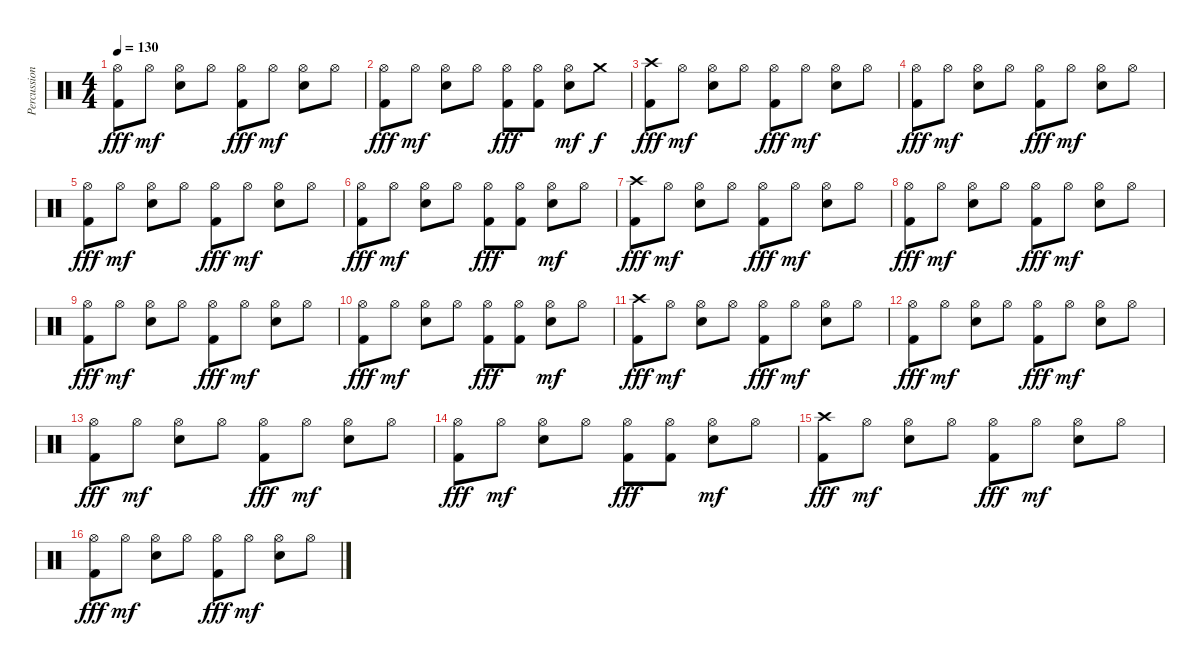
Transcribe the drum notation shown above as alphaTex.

\track ("Percussion" "Percussion") {instrument percussion}
\staff {score}
\articulation defaults
\ts (4 4)
\tempo 130
\clef neutral
\ks c
("Hi-Hat (open)" "Kick (hit) 2").8{dy fff} "Hi-Hat (open)".8{dy mf} ("Hi-Hat (open)" "Electric Snare (hit)").8 "Hi-Hat (open)".8 ("Hi-Hat (open)" "Kick (hit) 2").8{dy fff} "Hi-Hat (open)".8{dy mf} ("Hi-Hat (open)" "Electric Snare (hit)").8 "Hi-Hat (open)".8 |
("Hi-Hat (open)" "Kick (hit) 2").8{dy fff} "Hi-Hat (open)".8{dy mf} ("Hi-Hat (open)" "Electric Snare (hit)").8 "Hi-Hat (open)".8 ("Hi-Hat (open)" "Kick (hit) 2").8{dy fff} ("Hi-Hat (open)" "Kick (hit) 2").8 ("Hi-Hat (open)" "Electric Snare (hit)").8{dy mf} "Crash medium (hit)".8{dy f} |
("Crash high (hit)" "Kick (hit) 2").8{dy fff} "Hi-Hat (open)".8{dy mf} ("Hi-Hat (open)" "Electric Snare (hit)").8 "Hi-Hat (open)".8 ("Hi-Hat (open)" "Kick (hit) 2").8{dy fff} "Hi-Hat (open)".8{dy mf} ("Hi-Hat (open)" "Electric Snare (hit)").8 "Hi-Hat (open)".8 |
("Hi-Hat (open)" "Kick (hit) 2").8{dy fff} "Hi-Hat (open)".8{dy mf} ("Hi-Hat (open)" "Electric Snare (hit)").8 "Hi-Hat (open)".8 ("Hi-Hat (open)" "Kick (hit) 2").8{dy fff} "Hi-Hat (open)".8{dy mf} ("Hi-Hat (open)" "Electric Snare (hit)").8 "Hi-Hat (open)".8 |
("Hi-Hat (open)" "Kick (hit) 2").8{dy fff} "Hi-Hat (open)".8{dy mf} ("Hi-Hat (open)" "Electric Snare (hit)").8 "Hi-Hat (open)".8 ("Hi-Hat (open)" "Kick (hit) 2").8{dy fff} "Hi-Hat (open)".8{dy mf} ("Hi-Hat (open)" "Electric Snare (hit)").8 "Hi-Hat (open)".8 |
("Hi-Hat (open)" "Kick (hit) 2").8{dy fff} "Hi-Hat (open)".8{dy mf} ("Hi-Hat (open)" "Electric Snare (hit)").8 "Hi-Hat (open)".8 ("Hi-Hat (open)" "Kick (hit) 2").8{dy fff} ("Hi-Hat (open)" "Kick (hit) 2").8 ("Hi-Hat (open)" "Electric Snare (hit)").8{dy mf} "Hi-Hat (open)".8 |
("Crash high (hit)" "Kick (hit) 2").8{dy fff} "Hi-Hat (open)".8{dy mf} ("Hi-Hat (open)" "Electric Snare (hit)").8 "Hi-Hat (open)".8 ("Hi-Hat (open)" "Kick (hit) 2").8{dy fff} "Hi-Hat (open)".8{dy mf} ("Hi-Hat (open)" "Electric Snare (hit)").8 "Hi-Hat (open)".8 |
("Hi-Hat (open)" "Kick (hit) 2").8{dy fff} "Hi-Hat (open)".8{dy mf} ("Hi-Hat (open)" "Electric Snare (hit)").8 "Hi-Hat (open)".8 ("Hi-Hat (open)" "Kick (hit) 2").8{dy fff} "Hi-Hat (open)".8{dy mf} ("Hi-Hat (open)" "Electric Snare (hit)").8 "Hi-Hat (open)".8 |
("Hi-Hat (open)" "Kick (hit) 2").8{dy fff} "Hi-Hat (open)".8{dy mf} ("Hi-Hat (open)" "Electric Snare (hit)").8 "Hi-Hat (open)".8 ("Hi-Hat (open)" "Kick (hit) 2").8{dy fff} "Hi-Hat (open)".8{dy mf} ("Hi-Hat (open)" "Electric Snare (hit)").8 "Hi-Hat (open)".8 |
("Hi-Hat (open)" "Kick (hit) 2").8{dy fff} "Hi-Hat (open)".8{dy mf} ("Hi-Hat (open)" "Electric Snare (hit)").8 "Hi-Hat (open)".8 ("Hi-Hat (open)" "Kick (hit) 2").8{dy fff} ("Hi-Hat (open)" "Kick (hit) 2").8 ("Hi-Hat (open)" "Electric Snare (hit)").8{dy mf} "Hi-Hat (open)".8 |
("Crash high (hit)" "Kick (hit) 2").8{dy fff} "Hi-Hat (open)".8{dy mf} ("Hi-Hat (open)" "Electric Snare (hit)").8 "Hi-Hat (open)".8 ("Hi-Hat (open)" "Kick (hit) 2").8{dy fff} "Hi-Hat (open)".8{dy mf} ("Hi-Hat (open)" "Electric Snare (hit)").8 "Hi-Hat (open)".8 |
("Hi-Hat (open)" "Kick (hit) 2").8{dy fff} "Hi-Hat (open)".8{dy mf} ("Hi-Hat (open)" "Electric Snare (hit)").8 "Hi-Hat (open)".8 ("Hi-Hat (open)" "Kick (hit) 2").8{dy fff} "Hi-Hat (open)".8{dy mf} ("Hi-Hat (open)" "Electric Snare (hit)").8 "Hi-Hat (open)".8 |
("Hi-Hat (open)" "Kick (hit) 2").8{dy fff} "Hi-Hat (open)".8{dy mf} ("Hi-Hat (open)" "Electric Snare (hit)").8 "Hi-Hat (open)".8 ("Hi-Hat (open)" "Kick (hit) 2").8{dy fff} "Hi-Hat (open)".8{dy mf} ("Hi-Hat (open)" "Electric Snare (hit)").8 "Hi-Hat (open)".8 |
("Hi-Hat (open)" "Kick (hit) 2").8{dy fff} "Hi-Hat (open)".8{dy mf} ("Hi-Hat (open)" "Electric Snare (hit)").8 "Hi-Hat (open)".8 ("Hi-Hat (open)" "Kick (hit) 2").8{dy fff} ("Hi-Hat (open)" "Kick (hit) 2").8 ("Hi-Hat (open)" "Electric Snare (hit)").8{dy mf} "Hi-Hat (open)".8 |
("Crash high (hit)" "Kick (hit) 2").8{dy fff} "Hi-Hat (open)".8{dy mf} ("Hi-Hat (open)" "Electric Snare (hit)").8 "Hi-Hat (open)".8 ("Hi-Hat (open)" "Kick (hit) 2").8{dy fff} "Hi-Hat (open)".8{dy mf} ("Hi-Hat (open)" "Electric Snare (hit)").8 "Hi-Hat (open)".8 |
("Hi-Hat (open)" "Kick (hit) 2").8{dy fff} "Hi-Hat (open)".8{dy mf} ("Hi-Hat (open)" "Electric Snare (hit)").8 "Hi-Hat (open)".8 ("Hi-Hat (open)" "Kick (hit) 2").8{dy fff} "Hi-Hat (open)".8{dy mf} ("Hi-Hat (open)" "Electric Snare (hit)").8 "Hi-Hat (open)".8
